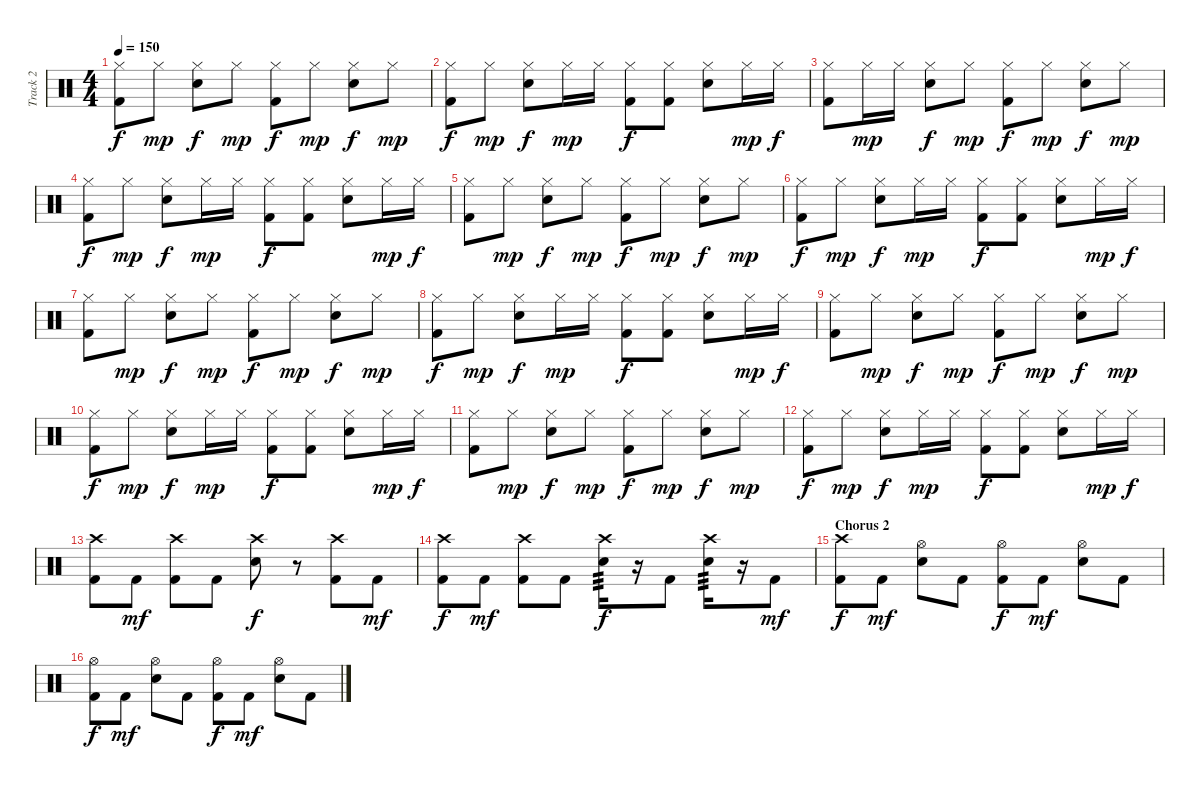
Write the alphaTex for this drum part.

\track ("Track 2" "Track 2") {instrument percussion}
\staff {score}
\articulation defaults
\ts (4 4)
\tempo 150
\clef neutral
\ks c
("Hi-Hat (closed)" "Kick (hit) 2").8{dy f} "Hi-Hat (closed)".8{dy mp} ("Hi-Hat (closed)" "Electric Snare (hit)").8{dy f} "Hi-Hat (closed)".8{dy mp} ("Hi-Hat (closed)" "Kick (hit) 2").8{dy f} "Hi-Hat (closed)".8{dy mp} ("Hi-Hat (closed)" "Electric Snare (hit)").8{dy f} "Hi-Hat (closed)".8{dy mp} |
("Hi-Hat (closed)" "Kick (hit) 2").8{dy f} "Hi-Hat (closed)".8{dy mp} ("Hi-Hat (closed)" "Electric Snare (hit)").8{dy f} "Hi-Hat (closed)".16{dy mp} "Hi-Hat (closed)".16 ("Hi-Hat (closed)" "Kick (hit) 2").8{dy f} ("Hi-Hat (closed)" "Kick (hit) 2").8 ("Hi-Hat (closed)" "Electric Snare (hit)").8 "Hi-Hat (closed)".16{dy mp} "Hi-Hat (closed)".16{dy f} |
("Hi-Hat (closed)" "Kick (hit) 2").8 "Hi-Hat (closed)".16{dy mp} "Hi-Hat (closed)".16 ("Hi-Hat (closed)" "Electric Snare (hit)").8{dy f} "Hi-Hat (closed)".8{dy mp} ("Hi-Hat (closed)" "Kick (hit) 2").8{dy f} "Hi-Hat (closed)".8{dy mp} ("Hi-Hat (closed)" "Electric Snare (hit)").8{dy f} "Hi-Hat (closed)".8{dy mp} |
("Hi-Hat (closed)" "Kick (hit) 2").8{dy f} "Hi-Hat (closed)".8{dy mp} ("Hi-Hat (closed)" "Electric Snare (hit)").8{dy f} "Hi-Hat (closed)".16{dy mp} "Hi-Hat (closed)".16 ("Hi-Hat (closed)" "Kick (hit) 2").8{dy f} ("Hi-Hat (closed)" "Kick (hit) 2").8 ("Hi-Hat (closed)" "Electric Snare (hit)").8 "Hi-Hat (closed)".16{dy mp} "Hi-Hat (closed)".16{dy f} |
("Hi-Hat (closed)" "Kick (hit) 2").8 "Hi-Hat (closed)".8{dy mp} ("Hi-Hat (closed)" "Electric Snare (hit)").8{dy f} "Hi-Hat (closed)".8{dy mp} ("Hi-Hat (closed)" "Kick (hit) 2").8{dy f} "Hi-Hat (closed)".8{dy mp} ("Hi-Hat (closed)" "Electric Snare (hit)").8{dy f} "Hi-Hat (closed)".8{dy mp} |
("Hi-Hat (closed)" "Kick (hit) 2").8{dy f} "Hi-Hat (closed)".8{dy mp} ("Hi-Hat (closed)" "Electric Snare (hit)").8{dy f} "Hi-Hat (closed)".16{dy mp} "Hi-Hat (closed)".16 ("Hi-Hat (closed)" "Kick (hit) 2").8{dy f} ("Hi-Hat (closed)" "Kick (hit) 2").8 ("Hi-Hat (closed)" "Electric Snare (hit)").8 "Hi-Hat (closed)".16{dy mp} "Hi-Hat (closed)".16{dy f} |
("Hi-Hat (closed)" "Kick (hit) 2").8 "Hi-Hat (closed)".8{dy mp} ("Hi-Hat (closed)" "Electric Snare (hit)").8{dy f} "Hi-Hat (closed)".8{dy mp} ("Hi-Hat (closed)" "Kick (hit) 2").8{dy f} "Hi-Hat (closed)".8{dy mp} ("Hi-Hat (closed)" "Electric Snare (hit)").8{dy f} "Hi-Hat (closed)".8{dy mp} |
("Hi-Hat (closed)" "Kick (hit) 2").8{dy f} "Hi-Hat (closed)".8{dy mp} ("Hi-Hat (closed)" "Electric Snare (hit)").8{dy f} "Hi-Hat (closed)".16{dy mp} "Hi-Hat (closed)".16 ("Hi-Hat (closed)" "Kick (hit) 2").8{dy f} ("Hi-Hat (closed)" "Kick (hit) 2").8 ("Hi-Hat (closed)" "Electric Snare (hit)").8 "Hi-Hat (closed)".16{dy mp} "Hi-Hat (closed)".16{dy f} |
("Hi-Hat (closed)" "Kick (hit) 2").8 "Hi-Hat (closed)".8{dy mp} ("Hi-Hat (closed)" "Electric Snare (hit)").8{dy f} "Hi-Hat (closed)".8{dy mp} ("Hi-Hat (closed)" "Kick (hit) 2").8{dy f} "Hi-Hat (closed)".8{dy mp} ("Hi-Hat (closed)" "Electric Snare (hit)").8{dy f} "Hi-Hat (closed)".8{dy mp} |
("Hi-Hat (closed)" "Kick (hit) 2").8{dy f} "Hi-Hat (closed)".8{dy mp} ("Hi-Hat (closed)" "Electric Snare (hit)").8{dy f} "Hi-Hat (closed)".16{dy mp} "Hi-Hat (closed)".16 ("Hi-Hat (closed)" "Kick (hit) 2").8{dy f} ("Hi-Hat (closed)" "Kick (hit) 2").8 ("Hi-Hat (closed)" "Electric Snare (hit)").8 "Hi-Hat (closed)".16{dy mp} "Hi-Hat (closed)".16{dy f} |
("Hi-Hat (closed)" "Kick (hit) 2").8 "Hi-Hat (closed)".8{dy mp} ("Hi-Hat (closed)" "Electric Snare (hit)").8{dy f} "Hi-Hat (closed)".8{dy mp} ("Hi-Hat (closed)" "Kick (hit) 2").8{dy f} "Hi-Hat (closed)".8{dy mp} ("Hi-Hat (closed)" "Electric Snare (hit)").8{dy f} "Hi-Hat (closed)".8{dy mp} |
("Hi-Hat (closed)" "Kick (hit) 2").8{dy f} "Hi-Hat (closed)".8{dy mp} ("Hi-Hat (closed)" "Electric Snare (hit)").8{dy f} "Hi-Hat (closed)".16{dy mp} "Hi-Hat (closed)".16 ("Hi-Hat (closed)" "Kick (hit) 2").8{dy f} ("Hi-Hat (closed)" "Kick (hit) 2").8 ("Hi-Hat (closed)" "Electric Snare (hit)").8 "Hi-Hat (closed)".16{dy mp} "Hi-Hat (closed)".16{dy f} |
("Crash high (hit)" "Kick (hit) 2").8 "Kick (hit) 2".8{dy mf} ("Crash high (hit)" "Kick (hit) 2").8 "Kick (hit) 2".8 ("Crash high (hit)" "Electric Snare (hit)").8{dy f} r.8 ("Crash high (hit)" "Kick (hit) 2").8 "Kick (hit) 2".8{dy mf} |
("Crash high (hit)" "Kick (hit) 2").8{dy f} "Kick (hit) 2".8{dy mf} ("Crash high (hit)" "Kick (hit) 2").8 "Kick (hit) 2".8 ("Crash high (hit)" "Electric Snare (hit)").16{tp 3 dy f} r.16 "Kick (hit) 2".8 ("Crash high (hit)" "Electric Snare (hit)").16{tp 3} r.16 "Kick (hit) 2".8{dy mf} |
\section ("" "Chorus 2")
("Crash high (hit)" "Kick (hit) 2").8{dy f} "Kick (hit) 2".8{dy mf} ("Hi-Hat (open)" "Electric Snare (hit)").8 "Kick (hit) 2".8 ("Hi-Hat (open)" "Kick (hit) 2").8{dy f} "Kick (hit) 2".8{dy mf} ("Hi-Hat (open)" "Electric Snare (hit)").8 "Kick (hit) 2".8 |
("Hi-Hat (open)" "Kick (hit) 2").8{dy f} "Kick (hit) 2".8{dy mf} ("Hi-Hat (open)" "Electric Snare (hit)").8 "Kick (hit) 2".8 ("Hi-Hat (open)" "Kick (hit) 2").8{dy f} "Kick (hit) 2".8{dy mf} ("Hi-Hat (open)" "Electric Snare (hit)").8 "Kick (hit) 2".8
